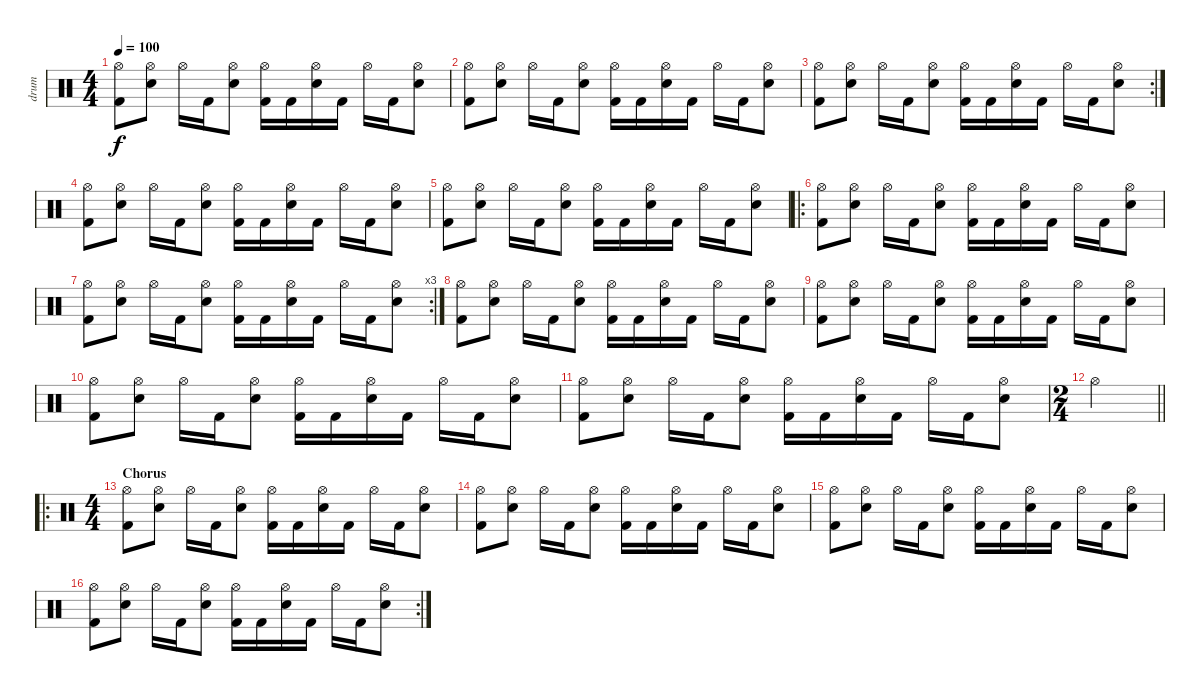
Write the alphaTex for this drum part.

\track ("drum" "drum") {instrument percussion}
\staff {score}
\articulation defaults
\ts (4 4)
\tempo 100
\clef neutral
\ks c
("Hi-Hat (open)" "Kick (hit) 2").8{dy f} ("Hi-Hat (open)" "Electric Snare (hit)").8 "Hi-Hat (open)".16 "Kick (hit) 2".16 ("Hi-Hat (open)" "Electric Snare (hit)").8 ("Hi-Hat (open)" "Kick (hit) 2").16 "Kick (hit) 2".16 ("Hi-Hat (open)" "Electric Snare (hit)").16 "Kick (hit) 2".16 "Hi-Hat (open)".16 "Kick (hit) 2".16 ("Hi-Hat (open)" "Electric Snare (hit)").8 |
("Hi-Hat (open)" "Kick (hit) 2").8 ("Hi-Hat (open)" "Electric Snare (hit)").8 "Hi-Hat (open)".16 "Kick (hit) 2".16 ("Hi-Hat (open)" "Electric Snare (hit)").8 ("Hi-Hat (open)" "Kick (hit) 2").16 "Kick (hit) 2".16 ("Hi-Hat (open)" "Electric Snare (hit)").16 "Kick (hit) 2".16 "Hi-Hat (open)".16 "Kick (hit) 2".16 ("Hi-Hat (open)" "Electric Snare (hit)").8 |
\rc 2
("Hi-Hat (open)" "Kick (hit) 2").8 ("Hi-Hat (open)" "Electric Snare (hit)").8 "Hi-Hat (open)".16 "Kick (hit) 2".16 ("Hi-Hat (open)" "Electric Snare (hit)").8 ("Hi-Hat (open)" "Kick (hit) 2").16 "Kick (hit) 2".16 ("Hi-Hat (open)" "Electric Snare (hit)").16 "Kick (hit) 2".16 "Hi-Hat (open)".16 "Kick (hit) 2".16 ("Hi-Hat (open)" "Electric Snare (hit)").8 |
("Hi-Hat (open)" "Kick (hit) 2").8 ("Hi-Hat (open)" "Electric Snare (hit)").8 "Hi-Hat (open)".16 "Kick (hit) 2".16 ("Hi-Hat (open)" "Electric Snare (hit)").8 ("Hi-Hat (open)" "Kick (hit) 2").16 "Kick (hit) 2".16 ("Hi-Hat (open)" "Electric Snare (hit)").16 "Kick (hit) 2".16 "Hi-Hat (open)".16 "Kick (hit) 2".16 ("Hi-Hat (open)" "Electric Snare (hit)").8 |
("Hi-Hat (open)" "Kick (hit) 2").8 ("Hi-Hat (open)" "Electric Snare (hit)").8 "Hi-Hat (open)".16 "Kick (hit) 2".16 ("Hi-Hat (open)" "Electric Snare (hit)").8 ("Hi-Hat (open)" "Kick (hit) 2").16 "Kick (hit) 2".16 ("Hi-Hat (open)" "Electric Snare (hit)").16 "Kick (hit) 2".16 "Hi-Hat (open)".16 "Kick (hit) 2".16 ("Hi-Hat (open)" "Electric Snare (hit)").8 |
\ro
("Hi-Hat (open)" "Kick (hit) 2").8 ("Hi-Hat (open)" "Electric Snare (hit)").8 "Hi-Hat (open)".16 "Kick (hit) 2".16 ("Hi-Hat (open)" "Electric Snare (hit)").8 ("Hi-Hat (open)" "Kick (hit) 2").16 "Kick (hit) 2".16 ("Hi-Hat (open)" "Electric Snare (hit)").16 "Kick (hit) 2".16 "Hi-Hat (open)".16 "Kick (hit) 2".16 ("Hi-Hat (open)" "Electric Snare (hit)").8 |
\rc 3
("Hi-Hat (open)" "Kick (hit) 2").8 ("Hi-Hat (open)" "Electric Snare (hit)").8 "Hi-Hat (open)".16 "Kick (hit) 2".16 ("Hi-Hat (open)" "Electric Snare (hit)").8 ("Hi-Hat (open)" "Kick (hit) 2").16 "Kick (hit) 2".16 ("Hi-Hat (open)" "Electric Snare (hit)").16 "Kick (hit) 2".16 "Hi-Hat (open)".16 "Kick (hit) 2".16 ("Hi-Hat (open)" "Electric Snare (hit)").8 |
("Hi-Hat (open)" "Kick (hit) 2").8 ("Hi-Hat (open)" "Electric Snare (hit)").8 "Hi-Hat (open)".16 "Kick (hit) 2".16 ("Hi-Hat (open)" "Electric Snare (hit)").8 ("Hi-Hat (open)" "Kick (hit) 2").16 "Kick (hit) 2".16 ("Hi-Hat (open)" "Electric Snare (hit)").16 "Kick (hit) 2".16 "Hi-Hat (open)".16 "Kick (hit) 2".16 ("Hi-Hat (open)" "Electric Snare (hit)").8 |
("Hi-Hat (open)" "Kick (hit) 2").8 ("Hi-Hat (open)" "Electric Snare (hit)").8 "Hi-Hat (open)".16 "Kick (hit) 2".16 ("Hi-Hat (open)" "Electric Snare (hit)").8 ("Hi-Hat (open)" "Kick (hit) 2").16 "Kick (hit) 2".16 ("Hi-Hat (open)" "Electric Snare (hit)").16 "Kick (hit) 2".16 "Hi-Hat (open)".16 "Kick (hit) 2".16 ("Hi-Hat (open)" "Electric Snare (hit)").8 |
("Hi-Hat (open)" "Kick (hit) 2").8 ("Hi-Hat (open)" "Electric Snare (hit)").8 "Hi-Hat (open)".16 "Kick (hit) 2".16 ("Hi-Hat (open)" "Electric Snare (hit)").8 ("Hi-Hat (open)" "Kick (hit) 2").16 "Kick (hit) 2".16 ("Hi-Hat (open)" "Electric Snare (hit)").16 "Kick (hit) 2".16 "Hi-Hat (open)".16 "Kick (hit) 2".16 ("Hi-Hat (open)" "Electric Snare (hit)").8 |
("Hi-Hat (open)" "Kick (hit) 2").8 ("Hi-Hat (open)" "Electric Snare (hit)").8 "Hi-Hat (open)".16 "Kick (hit) 2".16 ("Hi-Hat (open)" "Electric Snare (hit)").8 ("Hi-Hat (open)" "Kick (hit) 2").16 "Kick (hit) 2".16 ("Hi-Hat (open)" "Electric Snare (hit)").16 "Kick (hit) 2".16 "Hi-Hat (open)".16 "Kick (hit) 2".16 ("Hi-Hat (open)" "Electric Snare (hit)").8 |
\ts (2 4)
\barLineRight lightlight "Hi-Hat (open)".2
|
\ro
\ts (4 4)
\section ("" "Chorus")
("Hi-Hat (open)" "Kick (hit) 2").8 ("Hi-Hat (open)" "Electric Snare (hit)").8 "Hi-Hat (open)".16 "Kick (hit) 2".16 ("Hi-Hat (open)" "Electric Snare (hit)").8 ("Hi-Hat (open)" "Kick (hit) 2").16 "Kick (hit) 2".16 ("Hi-Hat (open)" "Electric Snare (hit)").16 "Kick (hit) 2".16 "Hi-Hat (open)".16 "Kick (hit) 2".16 ("Hi-Hat (open)" "Electric Snare (hit)").8 |
("Hi-Hat (open)" "Kick (hit) 2").8 ("Hi-Hat (open)" "Electric Snare (hit)").8 "Hi-Hat (open)".16 "Kick (hit) 2".16 ("Hi-Hat (open)" "Electric Snare (hit)").8 ("Hi-Hat (open)" "Kick (hit) 2").16 "Kick (hit) 2".16 ("Hi-Hat (open)" "Electric Snare (hit)").16 "Kick (hit) 2".16 "Hi-Hat (open)".16 "Kick (hit) 2".16 ("Hi-Hat (open)" "Electric Snare (hit)").8 |
("Hi-Hat (open)" "Kick (hit) 2").8 ("Hi-Hat (open)" "Electric Snare (hit)").8 "Hi-Hat (open)".16 "Kick (hit) 2".16 ("Hi-Hat (open)" "Electric Snare (hit)").8 ("Hi-Hat (open)" "Kick (hit) 2").16 "Kick (hit) 2".16 ("Hi-Hat (open)" "Electric Snare (hit)").16 "Kick (hit) 2".16 "Hi-Hat (open)".16 "Kick (hit) 2".16 ("Hi-Hat (open)" "Electric Snare (hit)").8 |
\rc 2
("Hi-Hat (open)" "Kick (hit) 2").8 ("Hi-Hat (open)" "Electric Snare (hit)").8 "Hi-Hat (open)".16 "Kick (hit) 2".16 ("Hi-Hat (open)" "Electric Snare (hit)").8 ("Hi-Hat (open)" "Kick (hit) 2").16 "Kick (hit) 2".16 ("Hi-Hat (open)" "Electric Snare (hit)").16 "Kick (hit) 2".16 "Hi-Hat (open)".16 "Kick (hit) 2".16 ("Hi-Hat (open)" "Electric Snare (hit)").8
